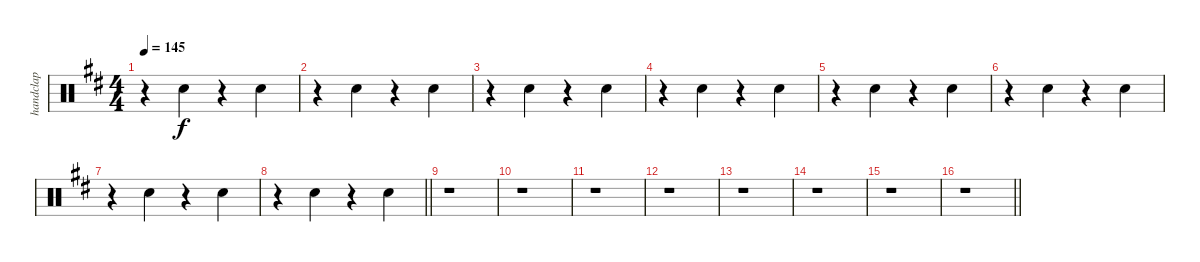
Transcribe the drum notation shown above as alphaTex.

\track ("handclap" "handclap") {instrument percussion}
\staff {score}
\articulation defaults
\ts (4 4)
\tempo 145
\clef neutral
\ks d
r.4{dy f} "Hand Clap (hit)".4 r.4 "Hand Clap (hit)".4 |
r.4 "Hand Clap (hit)".4 r.4 "Hand Clap (hit)".4 |
r.4 "Hand Clap (hit)".4 r.4 "Hand Clap (hit)".4 |
r.4 "Hand Clap (hit)".4 r.4 "Hand Clap (hit)".4 |
r.4 "Hand Clap (hit)".4 r.4 "Hand Clap (hit)".4 |
r.4 "Hand Clap (hit)".4 r.4 "Hand Clap (hit)".4 |
r.4 "Hand Clap (hit)".4 r.4 "Hand Clap (hit)".4 |
\barLineRight lightlight
r.4 "Hand Clap (hit)".4 r.4 "Hand Clap (hit)".4 |
r.1 |
r.1 |
r.1 |
r.1 |
r.1 |
r.1 |
r.1 |
\barLineRight lightlight
r.1
